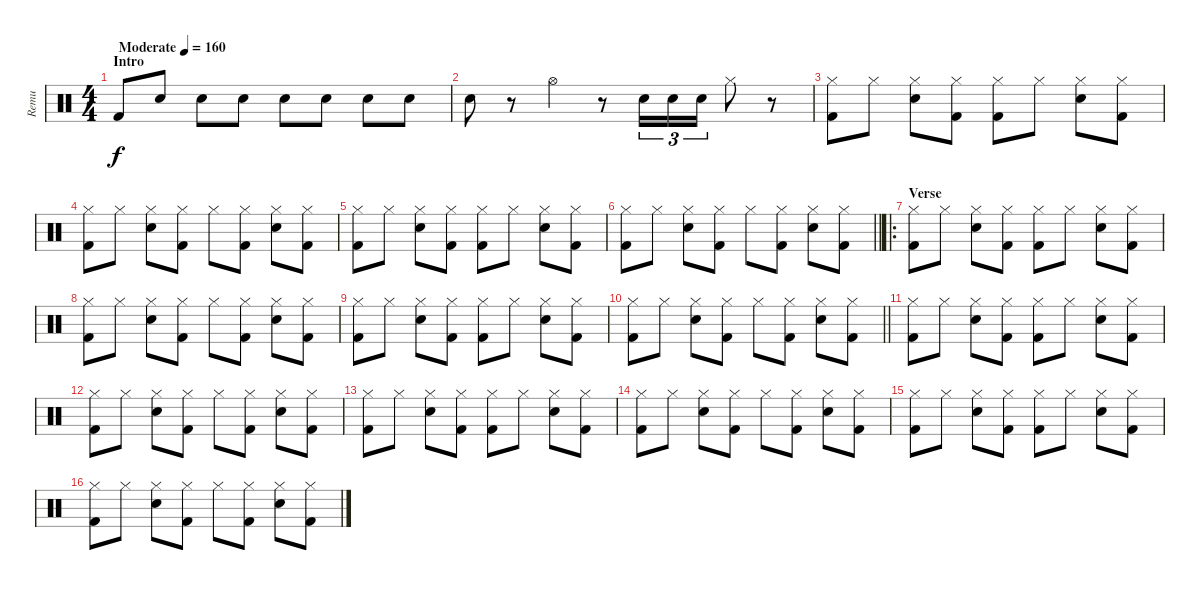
\track ("Remu" "Remu") {instrument percussion}
\staff {score}
\articulation defaults
\ts (4 4)
\section ("" "Intro")
\tempo (160 "Moderate")
\clef neutral
\ks c "Kick (hit) 2".8{dy f} "Snare (hit) 2".8 "Snare (hit) 2".8 "Snare (hit) 2".8 "Snare (hit) 2".8 "Snare (hit) 2".8 "Snare (hit) 2".8 "Snare (hit) 2".8
|
"Snare (hit) 2".8 r.8 "Hi-Hat (open)".4 r.8 "Snare (hit) 2".16{tu (3 2)} "Snare (hit) 2".16{tu (3 2)} "Snare (hit) 2".16{tu (3 2)} "Hi-Hat (closed)".8 r.8 |
("Hi-Hat (closed)" "Kick (hit) 2").8 "Hi-Hat (closed)".8 ("Hi-Hat (closed)" "Electric Snare (hit)").8 ("Hi-Hat (closed)" "Kick (hit) 2").8 ("Hi-Hat (closed)" "Kick (hit) 2").8 "Hi-Hat (closed)".8 ("Hi-Hat (closed)" "Electric Snare (hit)").8 ("Hi-Hat (closed)" "Kick (hit) 2").8 |
("Hi-Hat (closed)" "Kick (hit) 2").8 "Hi-Hat (closed)".8 ("Hi-Hat (closed)" "Electric Snare (hit)").8 ("Hi-Hat (closed)" "Kick (hit) 2").8 "Hi-Hat (closed)".8 ("Hi-Hat (closed)" "Kick (hit) 2").8 ("Hi-Hat (closed)" "Electric Snare (hit)").8 ("Hi-Hat (closed)" "Kick (hit) 2").8 |
("Hi-Hat (closed)" "Kick (hit) 2").8 "Hi-Hat (closed)".8 ("Hi-Hat (closed)" "Electric Snare (hit)").8 ("Hi-Hat (closed)" "Kick (hit) 2").8 ("Hi-Hat (closed)" "Kick (hit) 2").8 "Hi-Hat (closed)".8 ("Hi-Hat (closed)" "Electric Snare (hit)").8 ("Hi-Hat (closed)" "Kick (hit) 2").8 |
\barLineRight lightlight
("Hi-Hat (closed)" "Kick (hit) 2").8 "Hi-Hat (closed)".8 ("Hi-Hat (closed)" "Electric Snare (hit)").8 ("Hi-Hat (closed)" "Kick (hit) 2").8 "Hi-Hat (closed)".8 ("Hi-Hat (closed)" "Kick (hit) 2").8 ("Hi-Hat (closed)" "Electric Snare (hit)").8 ("Hi-Hat (closed)" "Kick (hit) 2").8 |
\ro
\section ("" "Verse")
("Hi-Hat (closed)" "Kick (hit) 2").8 "Hi-Hat (closed)".8 ("Hi-Hat (closed)" "Electric Snare (hit)").8 ("Hi-Hat (closed)" "Kick (hit) 2").8 ("Hi-Hat (closed)" "Kick (hit) 2").8 "Hi-Hat (closed)".8 ("Hi-Hat (closed)" "Electric Snare (hit)").8 ("Hi-Hat (closed)" "Kick (hit) 2").8 |
("Hi-Hat (closed)" "Kick (hit) 2").8 "Hi-Hat (closed)".8 ("Hi-Hat (closed)" "Electric Snare (hit)").8 ("Hi-Hat (closed)" "Kick (hit) 2").8 "Hi-Hat (closed)".8 ("Hi-Hat (closed)" "Kick (hit) 2").8 ("Hi-Hat (closed)" "Electric Snare (hit)").8 ("Hi-Hat (closed)" "Kick (hit) 2").8 |
("Hi-Hat (closed)" "Kick (hit) 2").8 "Hi-Hat (closed)".8 ("Hi-Hat (closed)" "Electric Snare (hit)").8 ("Hi-Hat (closed)" "Kick (hit) 2").8 ("Hi-Hat (closed)" "Kick (hit) 2").8 "Hi-Hat (closed)".8 ("Hi-Hat (closed)" "Electric Snare (hit)").8 ("Hi-Hat (closed)" "Kick (hit) 2").8 |
\barLineRight lightlight
("Hi-Hat (closed)" "Kick (hit) 2").8 "Hi-Hat (closed)".8 ("Hi-Hat (closed)" "Electric Snare (hit)").8 ("Hi-Hat (closed)" "Kick (hit) 2").8 "Hi-Hat (closed)".8 ("Hi-Hat (closed)" "Kick (hit) 2").8 ("Hi-Hat (closed)" "Electric Snare (hit)").8 ("Hi-Hat (closed)" "Kick (hit) 2").8 |
("Hi-Hat (closed)" "Kick (hit) 2").8 "Hi-Hat (closed)".8 ("Hi-Hat (closed)" "Electric Snare (hit)").8 ("Hi-Hat (closed)" "Kick (hit) 2").8 ("Hi-Hat (closed)" "Kick (hit) 2").8 "Hi-Hat (closed)".8 ("Hi-Hat (closed)" "Electric Snare (hit)").8 ("Hi-Hat (closed)" "Kick (hit) 2").8 |
("Hi-Hat (closed)" "Kick (hit) 2").8 "Hi-Hat (closed)".8 ("Hi-Hat (closed)" "Electric Snare (hit)").8 ("Hi-Hat (closed)" "Kick (hit) 2").8 "Hi-Hat (closed)".8 ("Hi-Hat (closed)" "Kick (hit) 2").8 ("Hi-Hat (closed)" "Electric Snare (hit)").8 ("Hi-Hat (closed)" "Kick (hit) 2").8 |
("Hi-Hat (closed)" "Kick (hit) 2").8 "Hi-Hat (closed)".8 ("Hi-Hat (closed)" "Electric Snare (hit)").8 ("Hi-Hat (closed)" "Kick (hit) 2").8 ("Hi-Hat (closed)" "Kick (hit) 2").8 "Hi-Hat (closed)".8 ("Hi-Hat (closed)" "Electric Snare (hit)").8 ("Hi-Hat (closed)" "Kick (hit) 2").8 |
("Hi-Hat (closed)" "Kick (hit) 2").8 "Hi-Hat (closed)".8 ("Hi-Hat (closed)" "Electric Snare (hit)").8 ("Hi-Hat (closed)" "Kick (hit) 2").8 "Hi-Hat (closed)".8 ("Hi-Hat (closed)" "Kick (hit) 2").8 ("Hi-Hat (closed)" "Electric Snare (hit)").8 ("Hi-Hat (closed)" "Kick (hit) 2").8 |
("Hi-Hat (closed)" "Kick (hit) 2").8 "Hi-Hat (closed)".8 ("Hi-Hat (closed)" "Electric Snare (hit)").8 ("Hi-Hat (closed)" "Kick (hit) 2").8 ("Hi-Hat (closed)" "Kick (hit) 2").8 "Hi-Hat (closed)".8 ("Hi-Hat (closed)" "Electric Snare (hit)").8 ("Hi-Hat (closed)" "Kick (hit) 2").8 |
("Hi-Hat (closed)" "Kick (hit) 2").8 "Hi-Hat (closed)".8 ("Hi-Hat (closed)" "Electric Snare (hit)").8 ("Hi-Hat (closed)" "Kick (hit) 2").8 "Hi-Hat (closed)".8 ("Hi-Hat (closed)" "Kick (hit) 2").8 ("Hi-Hat (closed)" "Electric Snare (hit)").8 ("Hi-Hat (closed)" "Kick (hit) 2").8
